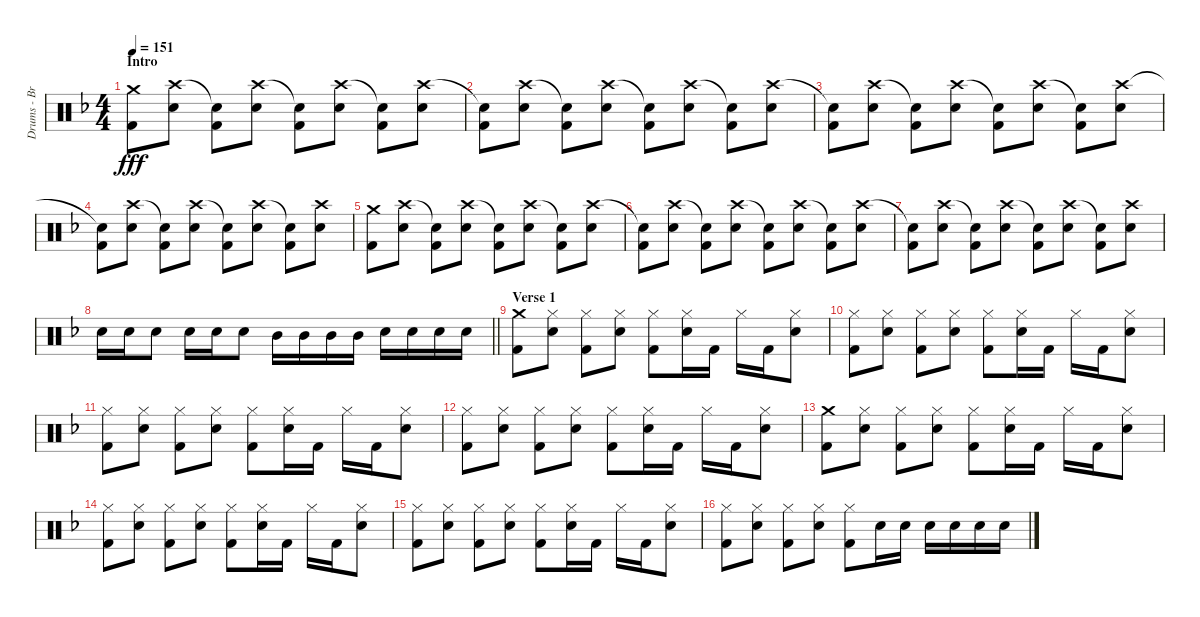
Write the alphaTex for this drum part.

\track ("Drums - Brooks Wackerman" "Drums - Br") {instrument percussion}
\staff {score}
\articulation defaults
\ts (4 4)
\section ("" "Intro")
\tempo 151
\clef neutral
\ks f
("Crash medium (hit)" "Kick (hit) 2").8{dy fff} ("Crash high (hit)" "Snare (hit) 2").8 ("Snare (hit)"{t} "Kick (hit) 2").8 ("Crash high (hit)" "Snare (hit) 2").8 ("Snare (hit)"{t} "Kick (hit) 2").8 ("Crash high (hit)" "Snare (hit) 2").8 ("Snare (hit)"{t} "Kick (hit) 2").8 ("Crash high (hit)" "Snare (hit) 2").8 |
("Snare (hit)"{t} "Kick (hit) 2").8 ("Crash high (hit)" "Snare (hit) 2").8 ("Snare (hit)"{t} "Kick (hit) 2").8 ("Crash high (hit)" "Snare (hit) 2").8 ("Snare (hit)"{t} "Kick (hit) 2").8 ("Crash high (hit)" "Snare (hit) 2").8 ("Snare (hit)"{t} "Kick (hit) 2").8 ("Crash high (hit)" "Snare (hit) 2").8 |
("Snare (hit)"{t} "Kick (hit) 2").8 ("Crash high (hit)" "Snare (hit) 2").8 ("Snare (hit)"{t} "Kick (hit) 2").8 ("Crash high (hit)" "Snare (hit) 2").8 ("Snare (hit)"{t} "Kick (hit) 2").8 ("Crash high (hit)" "Snare (hit) 2").8 ("Snare (hit)"{t} "Kick (hit) 2").8 ("Crash high (hit)" "Snare (hit) 2").8 |
("Snare (hit)"{t} "Kick (hit) 2").8 ("Crash high (hit)" "Snare (hit) 2").8 ("Snare (hit)"{t} "Kick (hit) 2").8 ("Crash high (hit)" "Snare (hit) 2").8 ("Snare (hit)"{t} "Kick (hit) 2").8 ("Crash high (hit)" "Snare (hit) 2").8 ("Snare (hit)"{t} "Kick (hit) 2").8 ("Crash high (hit)" "Snare (hit) 2").8 |
("Crash medium (hit)" "Kick (hit) 2").8 ("Crash high (hit)" "Snare (hit) 2").8 ("Snare (hit)"{t} "Kick (hit) 2").8 ("Crash high (hit)" "Snare (hit) 2").8 ("Snare (hit)"{t} "Kick (hit) 2").8 ("Crash high (hit)" "Snare (hit) 2").8 ("Snare (hit)"{t} "Kick (hit) 2").8 ("Crash high (hit)" "Snare (hit) 2").8 |
("Snare (hit)"{t} "Kick (hit) 2").8 ("Crash high (hit)" "Snare (hit) 2").8 ("Snare (hit)"{t} "Kick (hit) 2").8 ("Crash high (hit)" "Snare (hit) 2").8 ("Snare (hit)"{t} "Kick (hit) 2").8 ("Crash high (hit)" "Snare (hit) 2").8 ("Snare (hit)"{t} "Kick (hit) 2").8 ("Crash high (hit)" "Snare (hit) 2").8 |
("Snare (hit)"{t} "Kick (hit) 2").8 ("Crash high (hit)" "Snare (hit) 2").8 ("Snare (hit)"{t} "Kick (hit) 2").8 ("Crash high (hit)" "Snare (hit) 2").8 ("Snare (hit)"{t} "Kick (hit) 2").8 ("Crash high (hit)" "Snare (hit) 2").8 ("Snare (hit)"{t} "Kick (hit) 2").8 ("Crash high (hit)" "Snare (hit) 2").8 |
\barLineRight lightlight "Snare (hit) 2".16 "Snare (hit) 2".16 "Snare (hit) 2".8 "Snare (hit) 2".16 "Snare (hit) 2".16 "Snare (hit) 2".8 "Mid Tom (hit)".16 "Mid Tom (hit)".16 "Mid Tom (hit)".16 "Mid Tom (hit)".16 "Snare (hit) 2".16 "Snare (hit) 2".16 "Snare (hit) 2".16 "Snare (hit) 2".16
|
\section ("" "Verse 1")
("Crash medium (hit)" "Kick (hit) 2").8 ("Hi-Hat (closed)" "Snare (hit) 2").8 ("Hi-Hat (closed)" "Kick (hit) 2").8 ("Hi-Hat (closed)" "Snare (hit) 2").8 ("Hi-Hat (closed)" "Kick (hit) 2").8 ("Hi-Hat (closed)" "Snare (hit) 2").16 "Kick (hit) 2".16 "Hi-Hat (closed)".16 "Kick (hit) 2".16 ("Hi-Hat (closed)" "Snare (hit) 2").8 |
("Hi-Hat (closed)" "Kick (hit) 2").8 ("Hi-Hat (closed)" "Snare (hit) 2").8 ("Hi-Hat (closed)" "Kick (hit) 2").8 ("Hi-Hat (closed)" "Snare (hit) 2").8 ("Hi-Hat (closed)" "Kick (hit) 2").8 ("Hi-Hat (closed)" "Snare (hit) 2").16 "Kick (hit) 2".16 "Hi-Hat (closed)".16 "Kick (hit) 2".16 ("Hi-Hat (closed)" "Snare (hit) 2").8 |
("Hi-Hat (closed)" "Kick (hit) 2").8 ("Hi-Hat (closed)" "Snare (hit) 2").8 ("Hi-Hat (closed)" "Kick (hit) 2").8 ("Hi-Hat (closed)" "Snare (hit) 2").8 ("Hi-Hat (closed)" "Kick (hit) 2").8 ("Hi-Hat (closed)" "Snare (hit) 2").16 "Kick (hit) 2".16 "Hi-Hat (closed)".16 "Kick (hit) 2".16 ("Hi-Hat (closed)" "Snare (hit) 2").8 |
("Hi-Hat (closed)" "Kick (hit) 2").8 ("Hi-Hat (closed)" "Snare (hit) 2").8 ("Hi-Hat (closed)" "Kick (hit) 2").8 ("Hi-Hat (closed)" "Snare (hit) 2").8 ("Hi-Hat (closed)" "Kick (hit) 2").8 ("Hi-Hat (closed)" "Snare (hit) 2").16 "Kick (hit) 2".16 "Hi-Hat (closed)".16 "Kick (hit) 2".16 ("Hi-Hat (closed)" "Snare (hit) 2").8 |
("Crash medium (hit)" "Kick (hit) 2").8 ("Hi-Hat (closed)" "Snare (hit) 2").8 ("Hi-Hat (closed)" "Kick (hit) 2").8 ("Hi-Hat (closed)" "Snare (hit) 2").8 ("Hi-Hat (closed)" "Kick (hit) 2").8 ("Hi-Hat (closed)" "Snare (hit) 2").16 "Kick (hit) 2".16 "Hi-Hat (closed)".16 "Kick (hit) 2".16 ("Hi-Hat (closed)" "Snare (hit) 2").8 |
("Hi-Hat (closed)" "Kick (hit) 2").8 ("Hi-Hat (closed)" "Snare (hit) 2").8 ("Hi-Hat (closed)" "Kick (hit) 2").8 ("Hi-Hat (closed)" "Snare (hit) 2").8 ("Hi-Hat (closed)" "Kick (hit) 2").8 ("Hi-Hat (closed)" "Snare (hit) 2").16 "Kick (hit) 2".16 "Hi-Hat (closed)".16 "Kick (hit) 2".16 ("Hi-Hat (closed)" "Snare (hit) 2").8 |
("Hi-Hat (closed)" "Kick (hit) 2").8 ("Hi-Hat (closed)" "Snare (hit) 2").8 ("Hi-Hat (closed)" "Kick (hit) 2").8 ("Hi-Hat (closed)" "Snare (hit) 2").8 ("Hi-Hat (closed)" "Kick (hit) 2").8 ("Hi-Hat (closed)" "Snare (hit) 2").16 "Kick (hit) 2".16 "Hi-Hat (closed)".16 "Kick (hit) 2".16 ("Hi-Hat (closed)" "Snare (hit) 2").8 |
("Hi-Hat (closed)" "Kick (hit) 2").8 ("Hi-Hat (closed)" "Snare (hit) 2").8 ("Hi-Hat (closed)" "Kick (hit) 2").8 ("Hi-Hat (closed)" "Snare (hit) 2").8 ("Hi-Hat (closed)" "Kick (hit) 2").8 "Snare (hit) 2".16 "Snare (hit) 2".16 "Snare (hit) 2".16 "Snare (hit) 2".16 "Snare (hit) 2".16 "Snare (hit) 2".16
